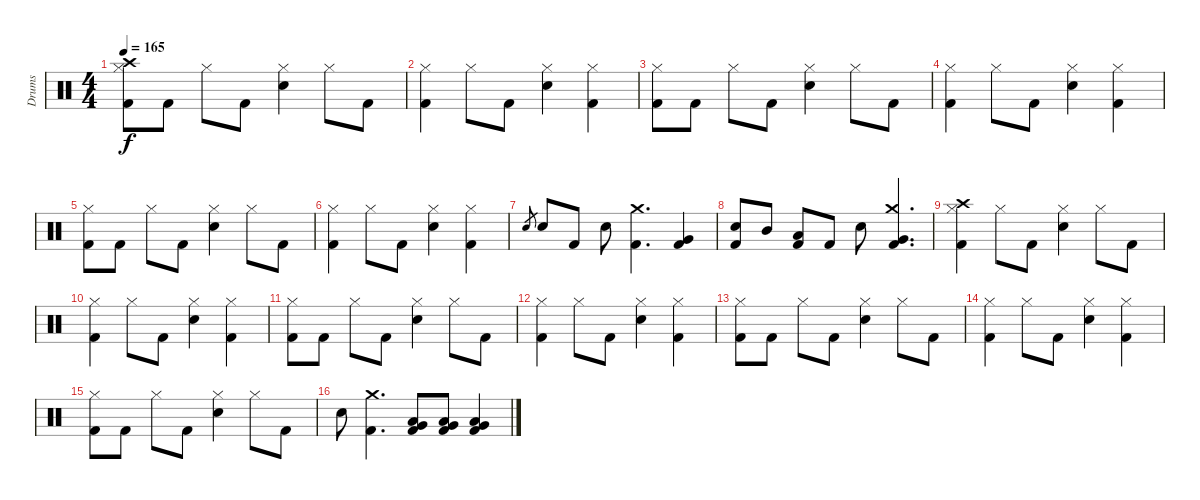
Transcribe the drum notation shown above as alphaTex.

\track ("Drums" "Drums") {instrument percussion}
\staff {score}
\articulation defaults
\ts (4 4)
\tempo 165
\clef neutral
\ks c
("Crash high (hit)" "Hi-Hat (closed)" "Kick (hit) 2").8{dy f} "Kick (hit) 2".8 "Hi-Hat (closed)".8 "Kick (hit) 2".8 ("Hi-Hat (closed)" "Electric Snare (hit)").4 "Hi-Hat (closed)".8 "Kick (hit) 2".8 |
("Hi-Hat (closed)" "Kick (hit) 2").4 "Hi-Hat (closed)".8 "Kick (hit) 2".8 ("Hi-Hat (closed)" "Electric Snare (hit)").4 ("Hi-Hat (closed)" "Kick (hit) 2").4 |
("Hi-Hat (closed)" "Kick (hit) 2").8 "Kick (hit) 2".8 "Hi-Hat (closed)".8 "Kick (hit) 2".8 ("Hi-Hat (closed)" "Electric Snare (hit)").4 "Hi-Hat (closed)".8 "Kick (hit) 2".8 |
("Hi-Hat (closed)" "Kick (hit) 2").4 "Hi-Hat (closed)".8 "Kick (hit) 2".8 ("Hi-Hat (closed)" "Electric Snare (hit)").4 ("Hi-Hat (closed)" "Kick (hit) 2").4 |
("Hi-Hat (closed)" "Kick (hit) 2").8 "Kick (hit) 2".8 "Hi-Hat (closed)".8 "Kick (hit) 2".8 ("Hi-Hat (closed)" "Electric Snare (hit)").4 "Hi-Hat (closed)".8 "Kick (hit) 2".8 |
("Hi-Hat (closed)" "Kick (hit) 2").4 "Hi-Hat (closed)".8 "Kick (hit) 2".8 ("Hi-Hat (closed)" "Electric Snare (hit)").4 ("Hi-Hat (closed)" "Kick (hit) 2").4 |
"Electric Snare (hit)".8{gr} "Electric Snare (hit)".8 "Kick (hit) 2".8 "Electric Snare (hit)".8 ("Crash medium (hit)" "Kick (hit) 2").4{d} ("Very Low Tom (hit)" "Kick (hit) 2").4 |
("Electric Snare (hit)" "Kick (hit) 2").8 "Mid Tom (hit)".8 ("Low Tom (hit)" "Kick (hit) 2").8 "Kick (hit) 2".8 "Electric Snare (hit)".8 ("Crash medium (hit)" "Very Low Tom (hit)" "Kick (hit) 2").4{d} |
("Crash high (hit)" "Hi-Hat (closed)" "Kick (hit) 2").4 "Hi-Hat (closed)".8 "Kick (hit) 2".8 ("Hi-Hat (closed)" "Electric Snare (hit)").4 "Hi-Hat (closed)".8 "Kick (hit) 2".8 |
("Hi-Hat (closed)" "Kick (hit) 2").4 "Hi-Hat (closed)".8 "Kick (hit) 2".8 ("Hi-Hat (closed)" "Electric Snare (hit)").4 ("Hi-Hat (closed)" "Kick (hit) 2").4 |
("Hi-Hat (closed)" "Kick (hit) 2").8 "Kick (hit) 2".8 "Hi-Hat (closed)".8 "Kick (hit) 2".8 ("Hi-Hat (closed)" "Electric Snare (hit)").4 "Hi-Hat (closed)".8 "Kick (hit) 2".8 |
("Hi-Hat (closed)" "Kick (hit) 2").4 "Hi-Hat (closed)".8 "Kick (hit) 2".8 ("Hi-Hat (closed)" "Electric Snare (hit)").4 ("Hi-Hat (closed)" "Kick (hit) 2").4 |
("Hi-Hat (closed)" "Kick (hit) 2").8 "Kick (hit) 2".8 "Hi-Hat (closed)".8 "Kick (hit) 2".8 ("Hi-Hat (closed)" "Electric Snare (hit)").4 "Hi-Hat (closed)".8 "Kick (hit) 2".8 |
("Hi-Hat (closed)" "Kick (hit) 2").4 "Hi-Hat (closed)".8 "Kick (hit) 2".8 ("Hi-Hat (closed)" "Electric Snare (hit)").4 ("Hi-Hat (closed)" "Kick (hit) 2").4 |
("Hi-Hat (closed)" "Kick (hit) 2").8 "Kick (hit) 2".8 "Hi-Hat (closed)".8 "Kick (hit) 2".8 ("Hi-Hat (closed)" "Electric Snare (hit)").4 "Hi-Hat (closed)".8 "Kick (hit) 2".8 |
"Electric Snare (hit)".8 ("Crash medium (hit)" "Kick (hit) 2").4{d} ("Low Tom (hit)" "Very Low Tom (hit)" "Kick (hit) 2").8 ("Low Tom (hit)" "Very Low Tom (hit)" "Kick (hit) 2").8 ("Low Tom (hit)" "Very Low Tom (hit)" "Kick (hit) 2").4
